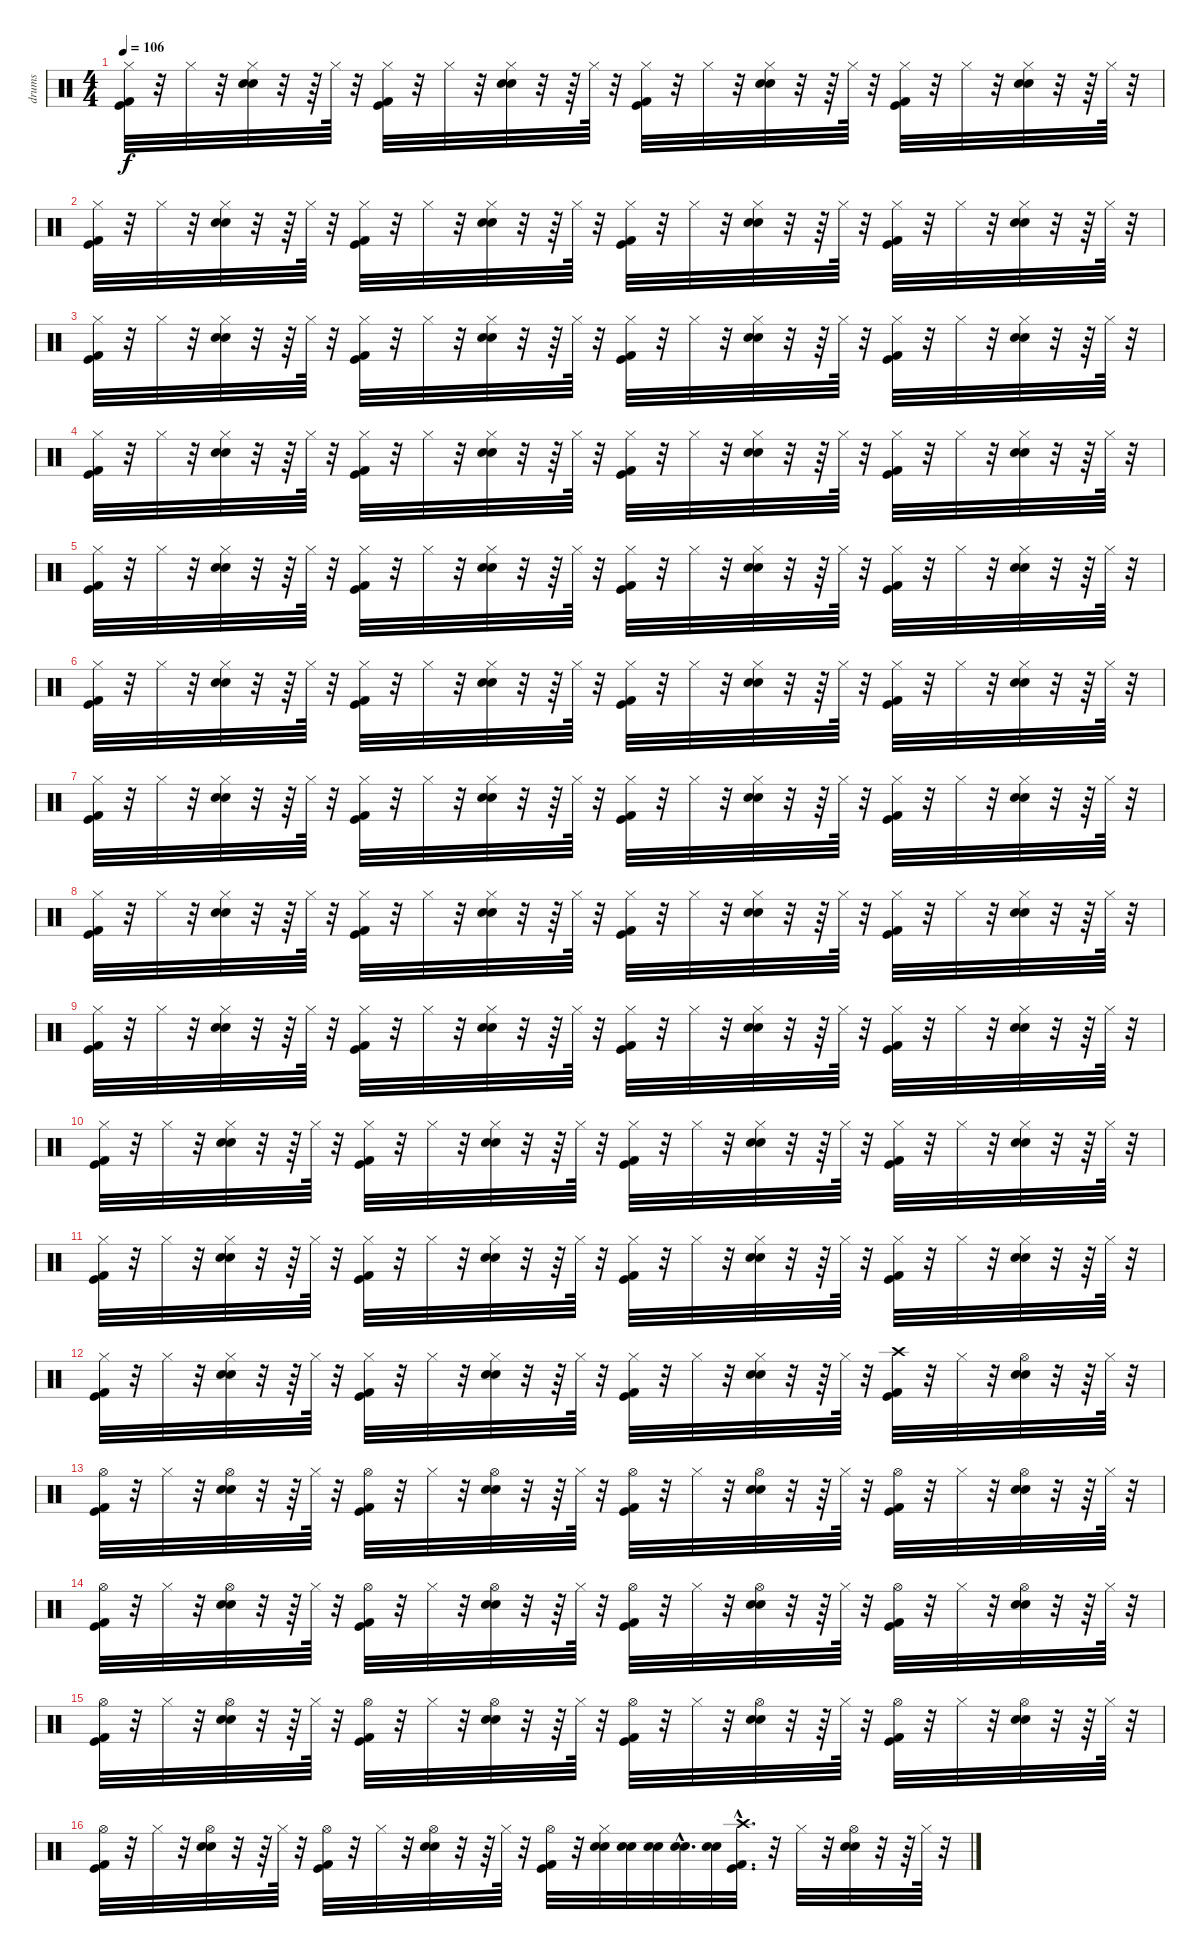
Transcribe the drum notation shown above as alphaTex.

\track ("drums" "drums") {instrument percussion}
\staff {score}
\articulation defaults
\ts (4 4)
\tempo 106
\clef neutral
\ks c
("Hi-Hat (closed)" "Kick (hit)" "Kick (hit) 2").32{dy f} r.32 "Hi-Hat (closed)".32 r.32 ("Electric Snare (hit)" "Snare (hit) 2" "Hi-Hat (closed)").32 r.32 r.64 "Hi-Hat (closed)".64 r.32 ("Kick (hit) 2" "Kick (hit)" "Hi-Hat (closed)").32 r.32 "Hi-Hat (closed)".32 r.32 ("Electric Snare (hit)" "Snare (hit) 2" "Hi-Hat (closed)").32 r.32 r.64 "Hi-Hat (closed)".64 r.32 ("Kick (hit) 2" "Kick (hit)" "Hi-Hat (closed)").32 r.32 "Hi-Hat (closed)".32 r.32 ("Electric Snare (hit)" "Snare (hit) 2" "Hi-Hat (closed)").32 r.32 r.64 "Hi-Hat (closed)".64 r.32 ("Kick (hit) 2" "Kick (hit)" "Hi-Hat (closed)").32 r.32 "Hi-Hat (closed)".32 r.32 ("Electric Snare (hit)" "Snare (hit) 2" "Hi-Hat (closed)").32 r.32 r.64 "Hi-Hat (closed)".64 r.32 |
("Kick (hit) 2" "Kick (hit)" "Hi-Hat (closed)").32 r.32 "Hi-Hat (closed)".32 r.32 ("Electric Snare (hit)" "Snare (hit) 2" "Hi-Hat (closed)").32 r.32 r.64 "Hi-Hat (closed)".64 r.32 ("Kick (hit) 2" "Kick (hit)" "Hi-Hat (closed)").32 r.32 "Hi-Hat (closed)".32 r.32 ("Electric Snare (hit)" "Snare (hit) 2" "Hi-Hat (closed)").32 r.32 r.64 "Hi-Hat (closed)".64 r.32 ("Kick (hit) 2" "Kick (hit)" "Hi-Hat (closed)").32 r.32 "Hi-Hat (closed)".32 r.32 ("Electric Snare (hit)" "Snare (hit) 2" "Hi-Hat (closed)").32 r.32 r.64 "Hi-Hat (closed)".64 r.32 ("Kick (hit) 2" "Kick (hit)" "Hi-Hat (closed)").32 r.32 "Hi-Hat (closed)".32 r.32 ("Electric Snare (hit)" "Snare (hit) 2" "Hi-Hat (closed)").32 r.32 r.64 "Hi-Hat (closed)".64 r.32 |
("Kick (hit) 2" "Kick (hit)" "Hi-Hat (closed)").32 r.32 "Hi-Hat (closed)".32 r.32 ("Electric Snare (hit)" "Snare (hit) 2" "Hi-Hat (closed)").32 r.32 r.64 "Hi-Hat (closed)".64 r.32 ("Kick (hit) 2" "Kick (hit)" "Hi-Hat (closed)").32 r.32 "Hi-Hat (closed)".32 r.32 ("Electric Snare (hit)" "Snare (hit) 2" "Hi-Hat (closed)").32 r.32 r.64 "Hi-Hat (closed)".64 r.32 ("Kick (hit) 2" "Kick (hit)" "Hi-Hat (closed)").32 r.32 "Hi-Hat (closed)".32 r.32 ("Electric Snare (hit)" "Snare (hit) 2" "Hi-Hat (closed)").32 r.32 r.64 "Hi-Hat (closed)".64 r.32 ("Kick (hit) 2" "Kick (hit)" "Hi-Hat (closed)").32 r.32 "Hi-Hat (closed)".32 r.32 ("Electric Snare (hit)" "Snare (hit) 2" "Hi-Hat (closed)").32 r.32 r.64 "Hi-Hat (closed)".64 r.32 |
("Kick (hit) 2" "Kick (hit)" "Hi-Hat (closed)").32 r.32 "Hi-Hat (closed)".32 r.32 ("Electric Snare (hit)" "Snare (hit) 2" "Hi-Hat (closed)").32 r.32 r.64 "Hi-Hat (closed)".64 r.32 ("Kick (hit) 2" "Kick (hit)" "Hi-Hat (closed)").32 r.32 "Hi-Hat (closed)".32 r.32 ("Electric Snare (hit)" "Snare (hit) 2" "Hi-Hat (closed)").32 r.32 r.64 "Hi-Hat (closed)".64 r.32 ("Kick (hit) 2" "Kick (hit)" "Hi-Hat (closed)").32 r.32 "Hi-Hat (closed)".32 r.32 ("Electric Snare (hit)" "Snare (hit) 2" "Hi-Hat (closed)").32 r.32 r.64 "Hi-Hat (closed)".64 r.32 ("Kick (hit) 2" "Kick (hit)" "Hi-Hat (closed)").32 r.32 "Hi-Hat (closed)".32 r.32 ("Electric Snare (hit)" "Snare (hit) 2" "Hi-Hat (closed)").32 r.32 r.64 "Hi-Hat (closed)".64 r.32 |
("Kick (hit) 2" "Kick (hit)" "Hi-Hat (closed)").32 r.32 "Hi-Hat (closed)".32 r.32 ("Electric Snare (hit)" "Snare (hit) 2" "Hi-Hat (closed)").32 r.32 r.64 "Hi-Hat (closed)".64 r.32 ("Kick (hit) 2" "Kick (hit)" "Hi-Hat (closed)").32 r.32 "Hi-Hat (closed)".32 r.32 ("Electric Snare (hit)" "Snare (hit) 2" "Hi-Hat (closed)").32 r.32 r.64 "Hi-Hat (closed)".64 r.32 ("Kick (hit) 2" "Kick (hit)" "Hi-Hat (closed)").32 r.32 "Hi-Hat (closed)".32 r.32 ("Electric Snare (hit)" "Snare (hit) 2" "Hi-Hat (closed)").32 r.32 r.64 "Hi-Hat (closed)".64 r.32 ("Kick (hit) 2" "Kick (hit)" "Hi-Hat (closed)").32 r.32 "Hi-Hat (closed)".32 r.32 ("Electric Snare (hit)" "Snare (hit) 2" "Hi-Hat (closed)").32 r.32 r.64 "Hi-Hat (closed)".64 r.32 |
("Kick (hit) 2" "Kick (hit)" "Hi-Hat (closed)").32 r.32 "Hi-Hat (closed)".32 r.32 ("Electric Snare (hit)" "Snare (hit) 2" "Hi-Hat (closed)").32 r.32 r.64 "Hi-Hat (closed)".64 r.32 ("Kick (hit) 2" "Kick (hit)" "Hi-Hat (closed)").32 r.32 "Hi-Hat (closed)".32 r.32 ("Electric Snare (hit)" "Snare (hit) 2" "Hi-Hat (closed)").32 r.32 r.64 "Hi-Hat (closed)".64 r.32 ("Kick (hit) 2" "Kick (hit)" "Hi-Hat (closed)").32 r.32 "Hi-Hat (closed)".32 r.32 ("Electric Snare (hit)" "Snare (hit) 2" "Hi-Hat (closed)").32 r.32 r.64 "Hi-Hat (closed)".64 r.32 ("Kick (hit) 2" "Kick (hit)" "Hi-Hat (closed)").32 r.32 "Hi-Hat (closed)".32 r.32 ("Electric Snare (hit)" "Snare (hit) 2" "Hi-Hat (closed)").32 r.32 r.64 "Hi-Hat (closed)".64 r.32 |
("Kick (hit) 2" "Kick (hit)" "Hi-Hat (closed)").32 r.32 "Hi-Hat (closed)".32 r.32 ("Electric Snare (hit)" "Snare (hit) 2" "Hi-Hat (closed)").32 r.32 r.64 "Hi-Hat (closed)".64 r.32 ("Kick (hit) 2" "Kick (hit)" "Hi-Hat (closed)").32 r.32 "Hi-Hat (closed)".32 r.32 ("Electric Snare (hit)" "Snare (hit) 2" "Hi-Hat (closed)").32 r.32 r.64 "Hi-Hat (closed)".64 r.32 ("Kick (hit) 2" "Kick (hit)" "Hi-Hat (closed)").32 r.32 "Hi-Hat (closed)".32 r.32 ("Electric Snare (hit)" "Snare (hit) 2" "Hi-Hat (closed)").32 r.32 r.64 "Hi-Hat (closed)".64 r.32 ("Kick (hit) 2" "Kick (hit)" "Hi-Hat (closed)").32 r.32 "Hi-Hat (closed)".32 r.32 ("Electric Snare (hit)" "Snare (hit) 2" "Hi-Hat (closed)").32 r.32 r.64 "Hi-Hat (closed)".64 r.32 |
("Kick (hit) 2" "Kick (hit)" "Hi-Hat (closed)").32 r.32 "Hi-Hat (closed)".32 r.32 ("Electric Snare (hit)" "Snare (hit) 2" "Hi-Hat (closed)").32 r.32 r.64 "Hi-Hat (closed)".64 r.32 ("Kick (hit) 2" "Kick (hit)" "Hi-Hat (closed)").32 r.32 "Hi-Hat (closed)".32 r.32 ("Electric Snare (hit)" "Snare (hit) 2" "Hi-Hat (closed)").32 r.32 r.64 "Hi-Hat (closed)".64 r.32 ("Kick (hit) 2" "Kick (hit)" "Hi-Hat (closed)").32 r.32 "Hi-Hat (closed)".32 r.32 ("Electric Snare (hit)" "Snare (hit) 2" "Hi-Hat (closed)").32 r.32 r.64 "Hi-Hat (closed)".64 r.32 ("Kick (hit) 2" "Kick (hit)" "Hi-Hat (closed)").32 r.32 "Hi-Hat (closed)".32 r.32 ("Electric Snare (hit)" "Snare (hit) 2" "Hi-Hat (closed)").32 r.32 r.64 "Hi-Hat (closed)".64 r.32 |
("Kick (hit) 2" "Kick (hit)" "Hi-Hat (closed)").32 r.32 "Hi-Hat (closed)".32 r.32 ("Electric Snare (hit)" "Snare (hit) 2" "Hi-Hat (closed)").32 r.32 r.64 "Hi-Hat (closed)".64 r.32 ("Kick (hit) 2" "Kick (hit)" "Hi-Hat (closed)").32 r.32 "Hi-Hat (closed)".32 r.32 ("Electric Snare (hit)" "Snare (hit) 2" "Hi-Hat (closed)").32 r.32 r.64 "Hi-Hat (closed)".64 r.32 ("Kick (hit) 2" "Kick (hit)" "Hi-Hat (closed)").32 r.32 "Hi-Hat (closed)".32 r.32 ("Electric Snare (hit)" "Snare (hit) 2" "Hi-Hat (closed)").32 r.32 r.64 "Hi-Hat (closed)".64 r.32 ("Kick (hit) 2" "Kick (hit)" "Hi-Hat (closed)").32 r.32 "Hi-Hat (closed)".32 r.32 ("Electric Snare (hit)" "Snare (hit) 2" "Hi-Hat (closed)").32 r.32 r.64 "Hi-Hat (closed)".64 r.32 |
("Kick (hit) 2" "Kick (hit)" "Hi-Hat (closed)").32 r.32 "Hi-Hat (closed)".32 r.32 ("Electric Snare (hit)" "Snare (hit) 2" "Hi-Hat (closed)").32 r.32 r.64 "Hi-Hat (closed)".64 r.32 ("Kick (hit) 2" "Kick (hit)" "Hi-Hat (closed)").32 r.32 "Hi-Hat (closed)".32 r.32 ("Electric Snare (hit)" "Snare (hit) 2" "Hi-Hat (closed)").32 r.32 r.64 "Hi-Hat (closed)".64 r.32 ("Kick (hit) 2" "Kick (hit)" "Hi-Hat (closed)").32 r.32 "Hi-Hat (closed)".32 r.32 ("Electric Snare (hit)" "Snare (hit) 2" "Hi-Hat (closed)").32 r.32 r.64 "Hi-Hat (closed)".64 r.32 ("Kick (hit) 2" "Kick (hit)" "Hi-Hat (closed)").32 r.32 "Hi-Hat (closed)".32 r.32 ("Electric Snare (hit)" "Snare (hit) 2" "Hi-Hat (closed)").32 r.32 r.64 "Hi-Hat (closed)".64 r.32 |
("Kick (hit) 2" "Kick (hit)" "Hi-Hat (closed)").32 r.32 "Hi-Hat (closed)".32 r.32 ("Electric Snare (hit)" "Snare (hit) 2" "Hi-Hat (closed)").32 r.32 r.64 "Hi-Hat (closed)".64 r.32 ("Kick (hit) 2" "Kick (hit)" "Hi-Hat (closed)").32 r.32 "Hi-Hat (closed)".32 r.32 ("Electric Snare (hit)" "Snare (hit) 2" "Hi-Hat (closed)").32 r.32 r.64 "Hi-Hat (closed)".64 r.32 ("Kick (hit) 2" "Kick (hit)" "Hi-Hat (closed)").32 r.32 "Hi-Hat (closed)".32 r.32 ("Electric Snare (hit)" "Snare (hit) 2" "Hi-Hat (closed)").32 r.32 r.64 "Hi-Hat (closed)".64 r.32 ("Kick (hit) 2" "Kick (hit)" "Hi-Hat (closed)").32 r.32 "Hi-Hat (closed)".32 r.32 ("Electric Snare (hit)" "Snare (hit) 2" "Hi-Hat (closed)").32 r.32 r.64 "Hi-Hat (closed)".64 r.32 |
("Kick (hit) 2" "Kick (hit)" "Hi-Hat (closed)").32 r.32 "Hi-Hat (closed)".32 r.32 ("Electric Snare (hit)" "Snare (hit) 2" "Hi-Hat (closed)").32 r.32 r.64 "Hi-Hat (closed)".64 r.32 ("Kick (hit) 2" "Kick (hit)" "Hi-Hat (closed)").32 r.32 "Hi-Hat (closed)".32 r.32 ("Electric Snare (hit)" "Snare (hit) 2" "Hi-Hat (closed)").32 r.32 r.64 "Hi-Hat (closed)".64 r.32 ("Kick (hit) 2" "Kick (hit)" "Hi-Hat (closed)").32 r.32 "Hi-Hat (closed)".32 r.32 ("Electric Snare (hit)" "Snare (hit) 2" "Hi-Hat (closed)").32 r.32 r.64 "Hi-Hat (closed)".64 r.32 ("Crash high (hit)" "Kick (hit)" "Kick (hit) 2").32 r.32 "Hi-Hat (closed)".32 r.32 ("Electric Snare (hit)" "Snare (hit) 2" "Hi-Hat (open)").32 r.32 r.64 "Hi-Hat (closed)".64 r.32 |
("Kick (hit) 2" "Kick (hit)" "Hi-Hat (open)").32 r.32 "Hi-Hat (closed)".32 r.32 ("Electric Snare (hit)" "Snare (hit) 2" "Hi-Hat (open)").32 r.32 r.64 "Hi-Hat (closed)".64 r.32 ("Kick (hit) 2" "Kick (hit)" "Hi-Hat (open)").32 r.32 "Hi-Hat (closed)".32 r.32 ("Electric Snare (hit)" "Snare (hit) 2" "Hi-Hat (open)").32 r.32 r.64 "Hi-Hat (closed)".64 r.32 ("Kick (hit) 2" "Kick (hit)" "Hi-Hat (open)").32 r.32 "Hi-Hat (closed)".32 r.32 ("Electric Snare (hit)" "Snare (hit) 2" "Hi-Hat (open)").32 r.32 r.64 "Hi-Hat (closed)".64 r.32 ("Hi-Hat (open)" "Kick (hit)" "Kick (hit) 2").32 r.32 "Hi-Hat (closed)".32 r.32 ("Electric Snare (hit)" "Snare (hit) 2" "Hi-Hat (open)").32 r.32 r.64 "Hi-Hat (closed)".64 r.32 |
("Kick (hit) 2" "Kick (hit)" "Hi-Hat (open)").32 r.32 "Hi-Hat (closed)".32 r.32 ("Electric Snare (hit)" "Snare (hit) 2" "Hi-Hat (open)").32 r.32 r.64 "Hi-Hat (closed)".64 r.32 ("Kick (hit) 2" "Kick (hit)" "Hi-Hat (open)").32 r.32 "Hi-Hat (closed)".32 r.32 ("Electric Snare (hit)" "Snare (hit) 2" "Hi-Hat (open)").32 r.32 r.64 "Hi-Hat (closed)".64 r.32 ("Kick (hit) 2" "Kick (hit)" "Hi-Hat (open)").32 r.32 "Hi-Hat (closed)".32 r.32 ("Electric Snare (hit)" "Snare (hit) 2" "Hi-Hat (open)").32 r.32 r.64 "Hi-Hat (closed)".64 r.32 ("Hi-Hat (open)" "Kick (hit)" "Kick (hit) 2").32 r.32 "Hi-Hat (closed)".32 r.32 ("Electric Snare (hit)" "Snare (hit) 2" "Hi-Hat (open)").32 r.32 r.64 "Hi-Hat (closed)".64 r.32 |
("Kick (hit) 2" "Kick (hit)" "Hi-Hat (open)").32 r.32 "Hi-Hat (closed)".32 r.32 ("Electric Snare (hit)" "Snare (hit) 2" "Hi-Hat (open)").32 r.32 r.64 "Hi-Hat (closed)".64 r.32 ("Kick (hit) 2" "Kick (hit)" "Hi-Hat (open)").32 r.32 "Hi-Hat (closed)".32 r.32 ("Electric Snare (hit)" "Snare (hit) 2" "Hi-Hat (open)").32 r.32 r.64 "Hi-Hat (closed)".64 r.32 ("Kick (hit) 2" "Kick (hit)" "Hi-Hat (open)").32 r.32 "Hi-Hat (closed)".32 r.32 ("Electric Snare (hit)" "Snare (hit) 2" "Hi-Hat (open)").32 r.32 r.64 "Hi-Hat (closed)".64 r.32 ("Hi-Hat (open)" "Kick (hit)" "Kick (hit) 2").32 r.32 "Hi-Hat (closed)".32 r.32 ("Electric Snare (hit)" "Snare (hit) 2" "Hi-Hat (open)").32 r.32 r.64 "Hi-Hat (closed)".64 r.32 |
("Kick (hit) 2" "Kick (hit)" "Hi-Hat (open)").32 r.32 "Hi-Hat (closed)".32 r.32 ("Electric Snare (hit)" "Snare (hit) 2" "Hi-Hat (open)").32 r.32 r.64 "Hi-Hat (closed)".64 r.32 ("Kick (hit) 2" "Kick (hit)" "Hi-Hat (open)").32 r.32 "Hi-Hat (closed)".32 r.32 ("Electric Snare (hit)" "Snare (hit) 2" "Hi-Hat (open)").32 r.32 r.64 "Hi-Hat (closed)".64 r.32 ("Kick (hit) 2" "Kick (hit)" "Hi-Hat (open)").32 r.32 ("Hi-Hat (closed)" "Snare (hit) 2" "Electric Snare (hit)").32 ("Electric Snare (hit)" "Snare (hit) 2").32 ("Electric Snare (hit)" "Snare (hit) 2").32 ("Snare (hit) 2"{hac} "Electric Snare (hit)"{hac}).32{d} ("Electric Snare (hit)" "Snare (hit) 2").32 ("Kick (hit)"{hac} "Kick (hit) 2"{hac} "Crash high (hit)"{hac}).32{d} r.32 "Hi-Hat (closed)".32 r.32 ("Electric Snare (hit)" "Snare (hit) 2" "Hi-Hat (open)").32 r.32 r.64 "Hi-Hat (closed)".64 r.32
